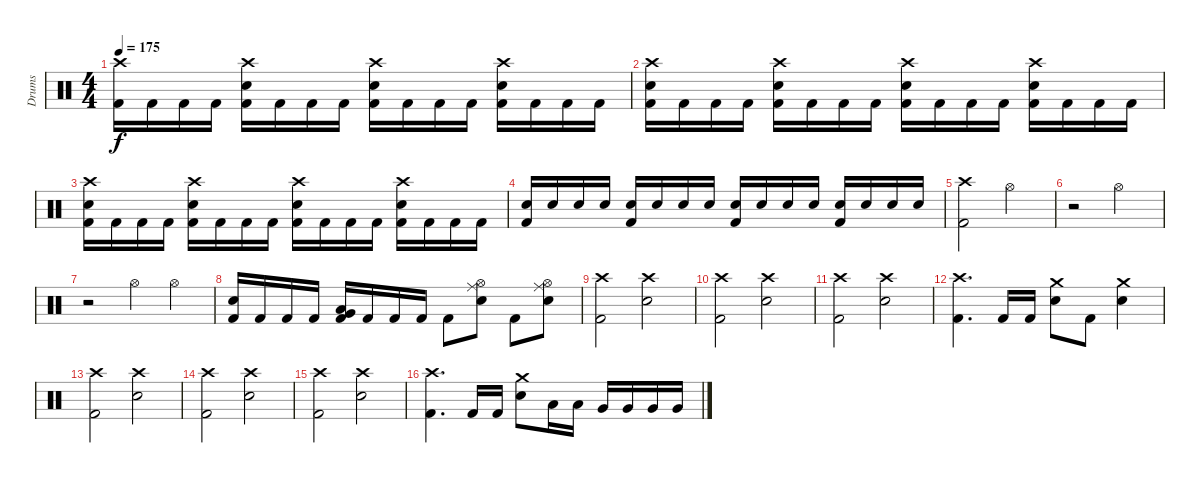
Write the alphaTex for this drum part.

\track ("Drums" "Drums") {instrument percussion}
\staff {score}
\articulation defaults
\ts (4 4)
\tempo 175
\clef neutral
\ks c
("Crash high (hit)" "Kick (hit) 2").16{dy f} "Kick (hit) 2".16 "Kick (hit) 2".16 "Kick (hit) 2".16 ("Crash high (hit)" "Snare (hit) 2" "Kick (hit) 2").16 "Kick (hit) 2".16 "Kick (hit) 2".16 "Kick (hit) 2".16 ("Crash high (hit)" "Snare (hit) 2" "Kick (hit) 2").16 "Kick (hit) 2".16 "Kick (hit) 2".16 "Kick (hit) 2".16 ("Crash high (hit)" "Snare (hit) 2" "Kick (hit) 2").16 "Kick (hit) 2".16 "Kick (hit) 2".16 "Kick (hit) 2".16 |
("Crash high (hit)" "Snare (hit) 2" "Kick (hit) 2").16 "Kick (hit) 2".16 "Kick (hit) 2".16 "Kick (hit) 2".16 ("Crash high (hit)" "Snare (hit) 2" "Kick (hit) 2").16 "Kick (hit) 2".16 "Kick (hit) 2".16 "Kick (hit) 2".16 ("Crash high (hit)" "Snare (hit) 2" "Kick (hit) 2").16 "Kick (hit) 2".16 "Kick (hit) 2".16 "Kick (hit) 2".16 ("Crash high (hit)" "Snare (hit) 2" "Kick (hit) 2").16 "Kick (hit) 2".16 "Kick (hit) 2".16 "Kick (hit) 2".16 |
("Crash high (hit)" "Snare (hit) 2" "Kick (hit) 2").16 "Kick (hit) 2".16 "Kick (hit) 2".16 "Kick (hit) 2".16 ("Crash high (hit)" "Snare (hit) 2" "Kick (hit) 2").16 "Kick (hit) 2".16 "Kick (hit) 2".16 "Kick (hit) 2".16 ("Crash high (hit)" "Snare (hit) 2" "Kick (hit) 2").16 "Kick (hit) 2".16 "Kick (hit) 2".16 "Kick (hit) 2".16 ("Crash high (hit)" "Snare (hit) 2" "Kick (hit) 2").16 "Kick (hit) 2".16 "Kick (hit) 2".16 "Kick (hit) 2".16 |
("Kick (hit) 2" "Snare (hit) 2").16 "Snare (hit) 2".16 "Snare (hit) 2".16 "Snare (hit) 2".16 ("Kick (hit) 2" "Snare (hit) 2").16 "Snare (hit) 2".16 "Snare (hit) 2".16 "Snare (hit) 2".16 ("Kick (hit) 2" "Snare (hit) 2").16 "Snare (hit) 2".16 "Snare (hit) 2".16 "Snare (hit) 2".16 ("Kick (hit) 2" "Snare (hit) 2").16 "Snare (hit) 2".16 "Snare (hit) 2".16 "Snare (hit) 2".16 |
("Crash high (hit)" "Kick (hit) 2").2 "Hi-Hat (open)".2 |
r.2 "Hi-Hat (open)".2 |
r.2 "Hi-Hat (open)".4 "Hi-Hat (open)".4 |
("Snare (hit) 2" "Kick (hit) 2").16 "Kick (hit) 2".16 "Kick (hit) 2".16 "Kick (hit) 2".16 ("Very Low Tom (hit)" "Low Floor Tom (hit)" "Kick (hit) 2").16 "Kick (hit) 2".16 "Kick (hit) 2".16 "Kick (hit) 2".16 "Kick (hit) 2".8 ("Hi-Hat (open)" "Ride (middle)" "Snare (hit) 2").8 "Kick (hit) 2".8 ("Hi-Hat (open)" "Ride (middle)" "Snare (hit) 2").8 |
("Crash high (hit)" "Kick (hit) 2").2 ("Crash high (hit)" "Snare (hit) 2").2 |
("Crash high (hit)" "Kick (hit) 2").2 ("Crash high (hit)" "Snare (hit) 2").2 |
("Crash high (hit)" "Kick (hit) 2").2 ("Crash high (hit)" "Snare (hit) 2").2 |
("Crash high (hit)" "Kick (hit) 2").4{d} "Kick (hit) 2".16 "Kick (hit) 2".16 ("Crash medium (hit)" "Snare (hit) 2").8 "Kick (hit) 2".8 ("Crash medium (hit)" "Snare (hit) 2").4 |
("Crash high (hit)" "Kick (hit) 2").2 ("Crash high (hit)" "Snare (hit) 2").2 |
("Crash high (hit)" "Kick (hit) 2").2 ("Crash high (hit)" "Snare (hit) 2").2 |
("Crash high (hit)" "Kick (hit) 2").2 ("Crash high (hit)" "Snare (hit) 2").2 |
("Crash high (hit)" "Kick (hit) 2").4{d} "Kick (hit) 2".16 "Kick (hit) 2".16 ("Crash medium (hit)" "Snare (hit) 2").8 "Low Tom (hit)".16 "Low Tom (hit)".16 "Very Low Tom (hit)".16 "Very Low Tom (hit)".16 "Very Low Tom (hit)".16 "Very Low Tom (hit)".16
